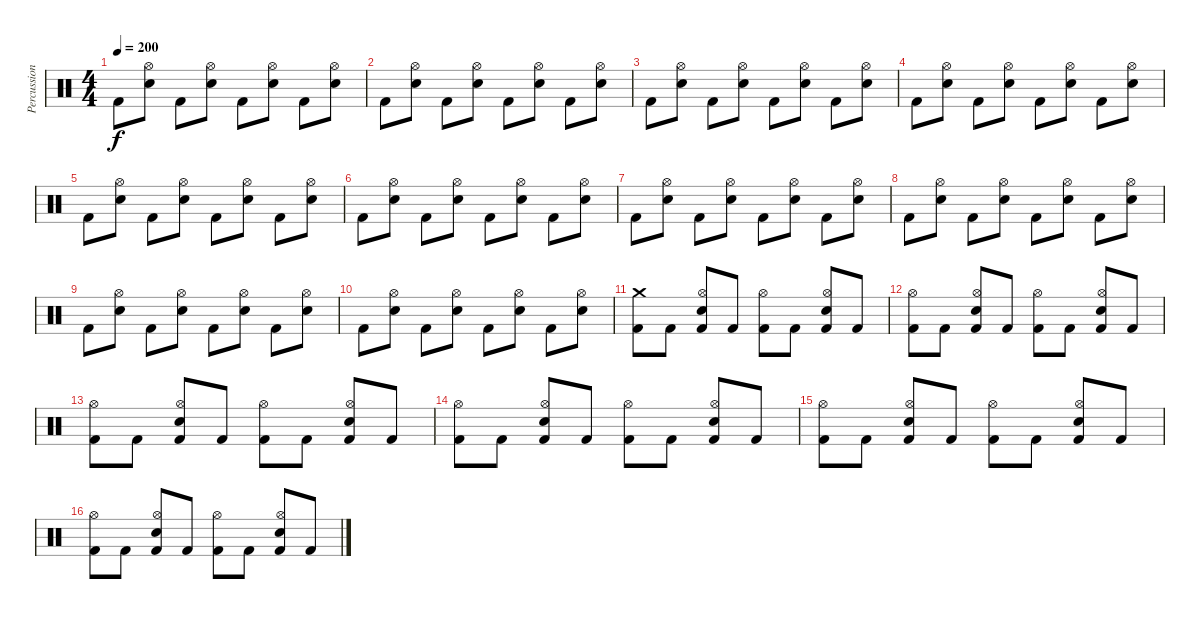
\track ("Percussion" "Percussion") {instrument percussion}
\staff {score}
\articulation defaults
\ts (4 4)
\tempo 200
\clef neutral
\ks c "Kick (hit) 2".8{dy f}
("Hi-Hat (open)" "Electric Snare (hit)").8 "Kick (hit) 2".8 ("Hi-Hat (open)" "Electric Snare (hit)").8 "Kick (hit) 2".8 ("Hi-Hat (open)" "Electric Snare (hit)").8 "Kick (hit) 2".8 ("Hi-Hat (open)" "Electric Snare (hit)").8 |
"Kick (hit) 2".8 ("Hi-Hat (open)" "Electric Snare (hit)").8 "Kick (hit) 2".8 ("Hi-Hat (open)" "Electric Snare (hit)").8 "Kick (hit) 2".8 ("Hi-Hat (open)" "Electric Snare (hit)").8 "Kick (hit) 2".8 ("Hi-Hat (open)" "Electric Snare (hit)").8 |
"Kick (hit) 2".8 ("Hi-Hat (open)" "Electric Snare (hit)").8 "Kick (hit) 2".8 ("Hi-Hat (open)" "Electric Snare (hit)").8 "Kick (hit) 2".8 ("Hi-Hat (open)" "Electric Snare (hit)").8 "Kick (hit) 2".8 ("Hi-Hat (open)" "Electric Snare (hit)").8 |
"Kick (hit) 2".8 ("Hi-Hat (open)" "Electric Snare (hit)").8 "Kick (hit) 2".8 ("Hi-Hat (open)" "Electric Snare (hit)").8 "Kick (hit) 2".8 ("Hi-Hat (open)" "Electric Snare (hit)").8 "Kick (hit) 2".8 ("Hi-Hat (open)" "Electric Snare (hit)").8 |
"Kick (hit) 2".8 ("Hi-Hat (open)" "Electric Snare (hit)").8 "Kick (hit) 2".8 ("Hi-Hat (open)" "Electric Snare (hit)").8 "Kick (hit) 2".8 ("Hi-Hat (open)" "Electric Snare (hit)").8 "Kick (hit) 2".8 ("Hi-Hat (open)" "Electric Snare (hit)").8 |
"Kick (hit) 2".8 ("Hi-Hat (open)" "Electric Snare (hit)").8 "Kick (hit) 2".8 ("Hi-Hat (open)" "Electric Snare (hit)").8 "Kick (hit) 2".8 ("Hi-Hat (open)" "Electric Snare (hit)").8 "Kick (hit) 2".8 ("Hi-Hat (open)" "Electric Snare (hit)").8 |
"Kick (hit) 2".8 ("Hi-Hat (open)" "Electric Snare (hit)").8 "Kick (hit) 2".8 ("Hi-Hat (open)" "Electric Snare (hit)").8 "Kick (hit) 2".8 ("Hi-Hat (open)" "Electric Snare (hit)").8 "Kick (hit) 2".8 ("Hi-Hat (open)" "Electric Snare (hit)").8 |
"Kick (hit) 2".8 ("Hi-Hat (open)" "Electric Snare (hit)").8 "Kick (hit) 2".8 ("Hi-Hat (open)" "Electric Snare (hit)").8 "Kick (hit) 2".8 ("Hi-Hat (open)" "Electric Snare (hit)").8 "Kick (hit) 2".8 ("Hi-Hat (open)" "Electric Snare (hit)").8 |
"Kick (hit) 2".8 ("Hi-Hat (open)" "Electric Snare (hit)").8 "Kick (hit) 2".8 ("Hi-Hat (open)" "Electric Snare (hit)").8 "Kick (hit) 2".8 ("Hi-Hat (open)" "Electric Snare (hit)").8 "Kick (hit) 2".8 ("Hi-Hat (open)" "Electric Snare (hit)").8 |
"Kick (hit) 2".8 ("Hi-Hat (open)" "Electric Snare (hit)").8 "Kick (hit) 2".8 ("Hi-Hat (open)" "Electric Snare (hit)").8 "Kick (hit) 2".8 ("Hi-Hat (open)" "Electric Snare (hit)").8 "Kick (hit) 2".8 ("Hi-Hat (open)" "Electric Snare (hit)").8 |
("Crash medium (hit)" "Kick (hit) 2").8 "Kick (hit) 2".8 ("Hi-Hat (open)" "Electric Snare (hit)" "Kick (hit) 2").8 "Kick (hit) 2".8 ("Hi-Hat (open)" "Kick (hit) 2").8 "Kick (hit) 2".8 ("Hi-Hat (open)" "Electric Snare (hit)" "Kick (hit) 2").8 "Kick (hit) 2".8 |
("Hi-Hat (open)" "Kick (hit) 2").8 "Kick (hit) 2".8 ("Hi-Hat (open)" "Electric Snare (hit)" "Kick (hit) 2").8 "Kick (hit) 2".8 ("Hi-Hat (open)" "Kick (hit) 2").8 "Kick (hit) 2".8 ("Hi-Hat (open)" "Electric Snare (hit)" "Kick (hit) 2").8 "Kick (hit) 2".8 |
("Hi-Hat (open)" "Kick (hit) 2").8 "Kick (hit) 2".8 ("Hi-Hat (open)" "Electric Snare (hit)" "Kick (hit) 2").8 "Kick (hit) 2".8 ("Hi-Hat (open)" "Kick (hit) 2").8 "Kick (hit) 2".8 ("Hi-Hat (open)" "Electric Snare (hit)" "Kick (hit) 2").8 "Kick (hit) 2".8 |
("Hi-Hat (open)" "Kick (hit) 2").8 "Kick (hit) 2".8 ("Hi-Hat (open)" "Electric Snare (hit)" "Kick (hit) 2").8 "Kick (hit) 2".8 ("Hi-Hat (open)" "Kick (hit) 2").8 "Kick (hit) 2".8 ("Hi-Hat (open)" "Electric Snare (hit)" "Kick (hit) 2").8 "Kick (hit) 2".8 |
("Hi-Hat (open)" "Kick (hit) 2").8 "Kick (hit) 2".8 ("Hi-Hat (open)" "Electric Snare (hit)" "Kick (hit) 2").8 "Kick (hit) 2".8 ("Hi-Hat (open)" "Kick (hit) 2").8 "Kick (hit) 2".8 ("Hi-Hat (open)" "Electric Snare (hit)" "Kick (hit) 2").8 "Kick (hit) 2".8 |
("Hi-Hat (open)" "Kick (hit) 2").8 "Kick (hit) 2".8 ("Hi-Hat (open)" "Electric Snare (hit)" "Kick (hit) 2").8 "Kick (hit) 2".8 ("Hi-Hat (open)" "Kick (hit) 2").8 "Kick (hit) 2".8 ("Hi-Hat (open)" "Electric Snare (hit)" "Kick (hit) 2").8 "Kick (hit) 2".8
